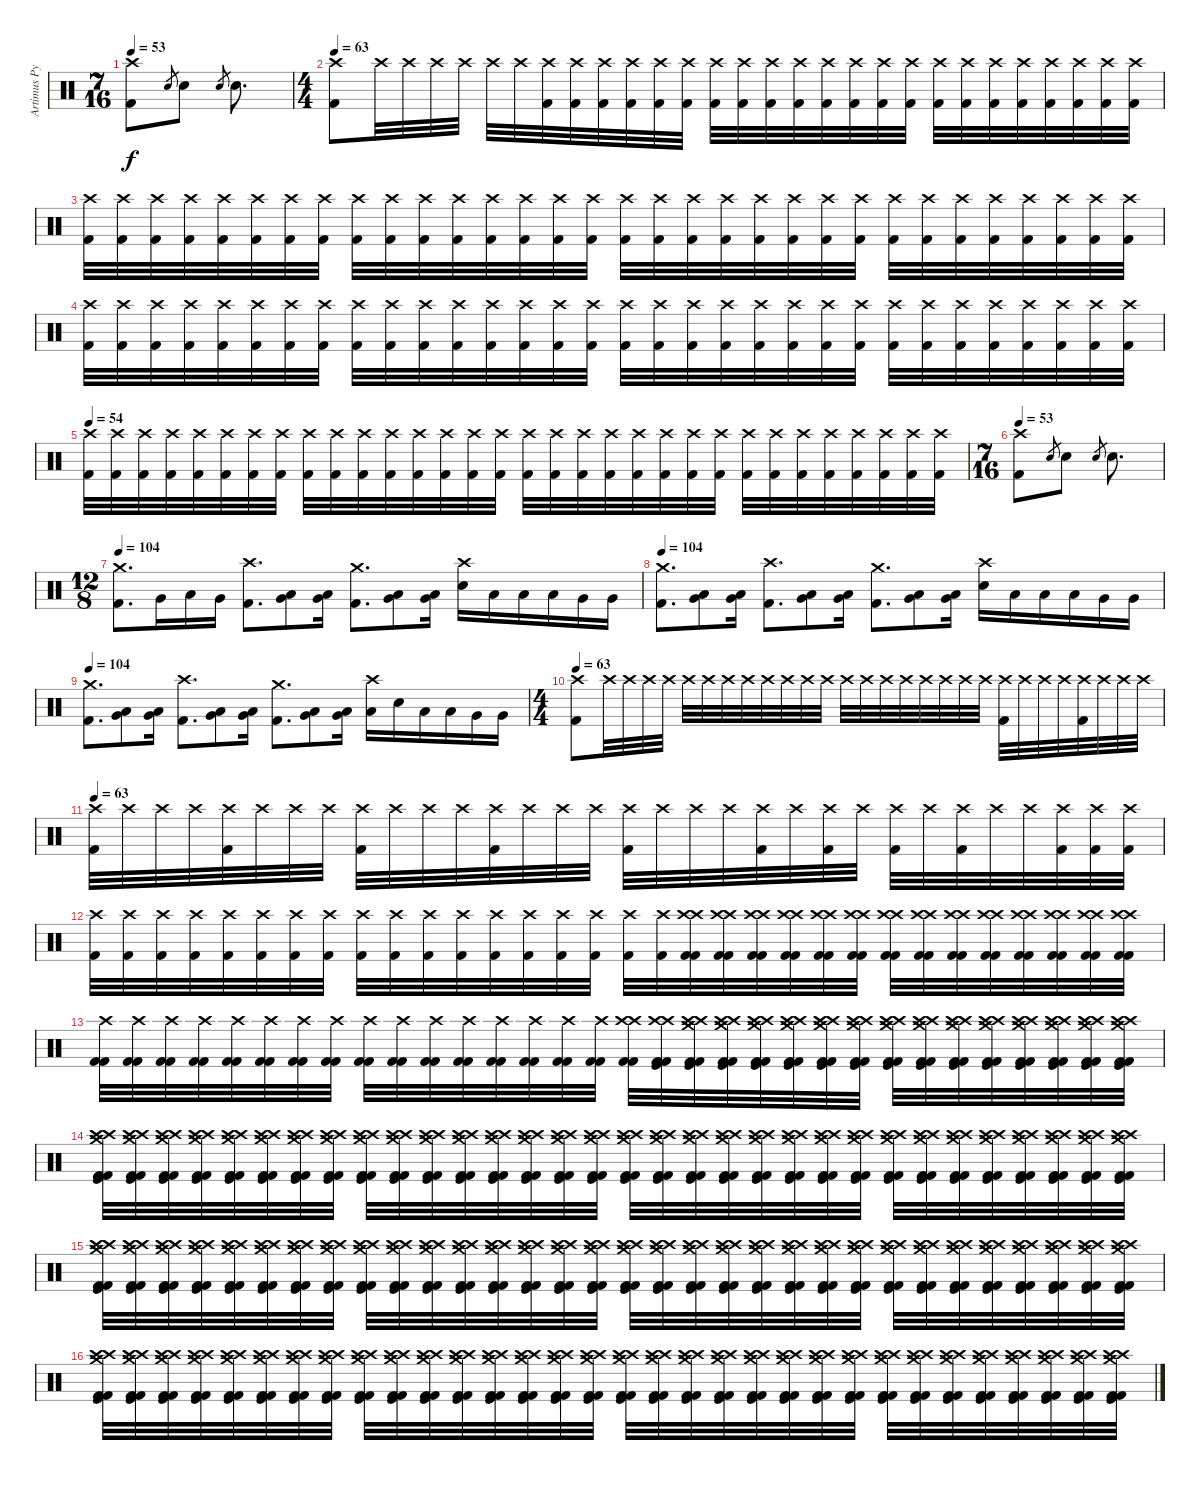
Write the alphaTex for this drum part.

\track ("Artimus Pyle (drums)" "Artimus Py") {instrument percussion}
\staff {score}
\articulation defaults
\ts (7 16)
\tempo 53
\clef neutral
\ks c
("Crash high (hit)" "Kick (hit) 2").8{dy f} "Electric Snare (hit)".8{gr} "Electric Snare (hit)".8 "Electric Snare (hit)".8{gr} "Electric Snare (hit)".8{d} |
\ts (4 4)
\tempo 63
("Crash high (hit)" "Kick (hit) 2").8 "Crash high (hit)".32 "Crash high (hit)".32 "Crash high (hit)".32 "Crash high (hit)".32 "Crash high (hit)".32 "Crash high (hit)".32 ("Crash high (hit)" "Kick (hit) 2").32 ("Crash high (hit)" "Kick (hit) 2").32 ("Crash high (hit)" "Kick (hit) 2").32 ("Crash high (hit)" "Kick (hit) 2").32 ("Crash high (hit)" "Kick (hit) 2").32 ("Crash high (hit)" "Kick (hit) 2").32 ("Crash high (hit)" "Kick (hit) 2").32 ("Crash high (hit)" "Kick (hit) 2").32 ("Crash high (hit)" "Kick (hit) 2").32 ("Crash high (hit)" "Kick (hit) 2").32 ("Crash high (hit)" "Kick (hit) 2").32 ("Crash high (hit)" "Kick (hit) 2").32 ("Crash high (hit)" "Kick (hit) 2").32 ("Crash high (hit)" "Kick (hit) 2").32 ("Crash high (hit)" "Kick (hit) 2").32 ("Crash high (hit)" "Kick (hit) 2").32 ("Crash high (hit)" "Kick (hit) 2").32 ("Crash high (hit)" "Kick (hit) 2").32 ("Crash high (hit)" "Kick (hit) 2").32 ("Crash high (hit)" "Kick (hit) 2").32 ("Crash high (hit)" "Kick (hit) 2").32 ("Crash high (hit)" "Kick (hit) 2").32 |
("Crash high (hit)" "Kick (hit) 2").32 ("Crash high (hit)" "Kick (hit) 2").32 ("Crash high (hit)" "Kick (hit) 2").32 ("Crash high (hit)" "Kick (hit) 2").32 ("Crash high (hit)" "Kick (hit) 2").32 ("Crash high (hit)" "Kick (hit) 2").32 ("Crash high (hit)" "Kick (hit) 2").32 ("Crash high (hit)" "Kick (hit) 2").32 ("Crash high (hit)" "Kick (hit) 2").32 ("Crash high (hit)" "Kick (hit) 2").32 ("Crash high (hit)" "Kick (hit) 2").32 ("Crash high (hit)" "Kick (hit) 2").32 ("Crash high (hit)" "Kick (hit) 2").32 ("Crash high (hit)" "Kick (hit) 2").32 ("Crash high (hit)" "Kick (hit) 2").32 ("Crash high (hit)" "Kick (hit) 2").32 ("Crash high (hit)" "Kick (hit) 2").32 ("Crash high (hit)" "Kick (hit) 2").32 ("Crash high (hit)" "Kick (hit) 2").32 ("Crash high (hit)" "Kick (hit) 2").32 ("Crash high (hit)" "Kick (hit) 2").32 ("Crash high (hit)" "Kick (hit) 2").32 ("Crash high (hit)" "Kick (hit) 2").32 ("Crash high (hit)" "Kick (hit) 2").32 ("Crash high (hit)" "Kick (hit) 2").32 ("Crash high (hit)" "Kick (hit) 2").32 ("Crash high (hit)" "Kick (hit) 2").32 ("Crash high (hit)" "Kick (hit) 2").32 ("Crash high (hit)" "Kick (hit) 2").32 ("Crash high (hit)" "Kick (hit) 2").32 ("Crash high (hit)" "Kick (hit) 2").32 ("Crash high (hit)" "Kick (hit) 2").32 |
("Crash high (hit)" "Kick (hit) 2").32 ("Crash high (hit)" "Kick (hit) 2").32 ("Crash high (hit)" "Kick (hit) 2").32 ("Crash high (hit)" "Kick (hit) 2").32 ("Crash high (hit)" "Kick (hit) 2").32 ("Crash high (hit)" "Kick (hit) 2").32 ("Crash high (hit)" "Kick (hit) 2").32 ("Crash high (hit)" "Kick (hit) 2").32 ("Crash high (hit)" "Kick (hit) 2").32 ("Crash high (hit)" "Kick (hit) 2").32 ("Crash high (hit)" "Kick (hit) 2").32 ("Crash high (hit)" "Kick (hit) 2").32 ("Crash high (hit)" "Kick (hit) 2").32 ("Crash high (hit)" "Kick (hit) 2").32 ("Crash high (hit)" "Kick (hit) 2").32 ("Crash high (hit)" "Kick (hit) 2").32 ("Crash high (hit)" "Kick (hit) 2").32 ("Crash high (hit)" "Kick (hit) 2").32 ("Crash high (hit)" "Kick (hit) 2").32 ("Crash high (hit)" "Kick (hit) 2").32 ("Crash high (hit)" "Kick (hit) 2").32 ("Crash high (hit)" "Kick (hit) 2").32 ("Crash high (hit)" "Kick (hit) 2").32 ("Crash high (hit)" "Kick (hit) 2").32 ("Crash high (hit)" "Kick (hit) 2").32 ("Crash high (hit)" "Kick (hit) 2").32 ("Crash high (hit)" "Kick (hit) 2").32 ("Crash high (hit)" "Kick (hit) 2").32 ("Crash high (hit)" "Kick (hit) 2").32 ("Crash high (hit)" "Kick (hit) 2").32 ("Crash high (hit)" "Kick (hit) 2").32 ("Crash high (hit)" "Kick (hit) 2").32 |
\tempo 54
("Crash high (hit)" "Kick (hit) 2").32 ("Crash high (hit)" "Kick (hit) 2").32 ("Crash high (hit)" "Kick (hit) 2").32 ("Crash high (hit)" "Kick (hit) 2").32 ("Crash high (hit)" "Kick (hit) 2").32 ("Crash high (hit)" "Kick (hit) 2").32 ("Crash high (hit)" "Kick (hit) 2").32 ("Crash high (hit)" "Kick (hit) 2").32 ("Crash high (hit)" "Kick (hit) 2").32 ("Crash high (hit)" "Kick (hit) 2").32 ("Crash high (hit)" "Kick (hit) 2").32 ("Crash high (hit)" "Kick (hit) 2").32 ("Crash high (hit)" "Kick (hit) 2").32 ("Crash high (hit)" "Kick (hit) 2").32 ("Crash high (hit)" "Kick (hit) 2").32 ("Crash high (hit)" "Kick (hit) 2").32 ("Crash high (hit)" "Kick (hit) 2").32 ("Crash high (hit)" "Kick (hit) 2").32 ("Crash high (hit)" "Kick (hit) 2").32 ("Crash high (hit)" "Kick (hit) 2").32 ("Crash high (hit)" "Kick (hit) 2").32 ("Crash high (hit)" "Kick (hit) 2").32 ("Crash high (hit)" "Kick (hit) 2").32 ("Crash high (hit)" "Kick (hit) 2").32 ("Crash high (hit)" "Kick (hit) 2").32 ("Crash high (hit)" "Kick (hit) 2").32 ("Crash high (hit)" "Kick (hit) 2").32 ("Crash high (hit)" "Kick (hit) 2").32 ("Crash high (hit)" "Kick (hit) 2").32 ("Crash high (hit)" "Kick (hit) 2").32 ("Crash high (hit)" "Kick (hit) 2").32 ("Crash high (hit)" "Kick (hit) 2").32 |
\ts (7 16)
\tempo 53
("Crash high (hit)" "Kick (hit) 2").8 "Electric Snare (hit)".8{gr} "Electric Snare (hit)".8 "Electric Snare (hit)".8{gr} "Electric Snare (hit)".8{d} |
\ts (12 8)
\tempo 104
("Crash medium (hit)" "Kick (hit) 2").8{d} "Very Low Tom (hit)".16 "Low Tom (hit)".16 "Very Low Tom (hit)".16 ("Crash high (hit)" "Kick (hit) 2").8{d} ("Low Tom (hit)" "Very Low Tom (hit)").8 ("Low Tom (hit)" "Very Low Tom (hit)").16 ("Crash medium (hit)" "Kick (hit) 2").8{d} ("Low Tom (hit)" "Very Low Tom (hit)").8 ("Low Tom (hit)" "Very Low Tom (hit)").16 ("Crash high (hit)" "Electric Snare (hit)").16 "Low Tom (hit)".16 "Low Tom (hit)".16 "Low Tom (hit)".16 "Very Low Tom (hit)".16 "Very Low Tom (hit)".16 |
\tempo 104
("Crash medium (hit)" "Kick (hit) 2").8{d} ("Low Tom (hit)" "Very Low Tom (hit)").8 ("Low Tom (hit)" "Very Low Tom (hit)").16 ("Crash high (hit)" "Kick (hit) 2").8{d} ("Low Tom (hit)" "Very Low Tom (hit)").8 ("Low Tom (hit)" "Very Low Tom (hit)").16 ("Crash medium (hit)" "Kick (hit) 2").8{d} ("Low Tom (hit)" "Very Low Tom (hit)").8 ("Low Tom (hit)" "Very Low Tom (hit)").16 ("Crash high (hit)" "Electric Snare (hit)").16 "Low Tom (hit)".16 "Low Tom (hit)".16 "Low Tom (hit)".16 "Very Low Tom (hit)".16 "Very Low Tom (hit)".16 |
\tempo 104
("Crash medium (hit)" "Kick (hit) 2").8{d} ("Low Tom (hit)" "Very Low Tom (hit)").8 ("Low Tom (hit)" "Very Low Tom (hit)").16 ("Crash high (hit)" "Kick (hit) 2").8{d} ("Low Tom (hit)" "Very Low Tom (hit)").8 ("Low Tom (hit)" "Very Low Tom (hit)").16 ("Crash medium (hit)" "Kick (hit) 2").8{d} ("Low Tom (hit)" "Very Low Tom (hit)").8 ("Low Tom (hit)" "Very Low Tom (hit)").16 ("Crash high (hit)" "Low Tom (hit)").16 "Electric Snare (hit)".16 "Low Tom (hit)".16 "Low Tom (hit)".16 "Very Low Tom (hit)".16 "Very Low Tom (hit)".16 |
\ts (4 4)
\tempo 63
("Crash high (hit)" "Kick (hit) 2").8 "Crash high (hit)".32 "Crash high (hit)".32 "Crash high (hit)".32 "Crash high (hit)".32 "Crash high (hit)".32 "Crash high (hit)".32 "Crash high (hit)".32 "Crash high (hit)".32 "Crash high (hit)".32 "Crash high (hit)".32 "Crash high (hit)".32 "Crash high (hit)".32 "Crash high (hit)".32 "Crash high (hit)".32 "Crash high (hit)".32 "Crash high (hit)".32 "Crash high (hit)".32 "Crash high (hit)".32 "Crash high (hit)".32 "Crash high (hit)".32 ("Crash high (hit)" "Kick (hit) 2").32 "Crash high (hit)".32 "Crash high (hit)".32 "Crash high (hit)".32 ("Crash high (hit)" "Kick (hit) 2").32 "Crash high (hit)".32 "Crash high (hit)".32 "Crash high (hit)".32 |
\tempo 63
("Crash high (hit)" "Kick (hit) 2").32 "Crash high (hit)".32 "Crash high (hit)".32 "Crash high (hit)".32 ("Crash high (hit)" "Kick (hit) 2").32 "Crash high (hit)".32 "Crash high (hit)".32 "Crash high (hit)".32 ("Crash high (hit)" "Kick (hit) 2").32 "Crash high (hit)".32 "Crash high (hit)".32 "Crash high (hit)".32 ("Crash high (hit)" "Kick (hit) 2").32 "Crash high (hit)".32 "Crash high (hit)".32 "Crash high (hit)".32 ("Crash high (hit)" "Kick (hit) 2").32 "Crash high (hit)".32 "Crash high (hit)".32 "Crash high (hit)".32 ("Crash high (hit)" "Kick (hit) 2").32 "Crash high (hit)".32 ("Crash high (hit)" "Kick (hit) 2").32 "Crash high (hit)".32 ("Crash high (hit)" "Kick (hit) 2").32 "Crash high (hit)".32 ("Crash high (hit)" "Kick (hit) 2").32 "Crash high (hit)".32 "Crash high (hit)".32 ("Crash high (hit)" "Kick (hit) 2").32 ("Crash high (hit)" "Kick (hit) 2").32 ("Crash high (hit)" "Kick (hit) 2").32 |
("Crash high (hit)" "Kick (hit) 2").32 ("Crash high (hit)" "Kick (hit) 2").32 ("Crash high (hit)" "Kick (hit) 2").32 ("Crash high (hit)" "Kick (hit) 2").32 ("Crash high (hit)" "Kick (hit) 2").32 ("Crash high (hit)" "Kick (hit) 2").32 ("Crash high (hit)" "Kick (hit) 2").32 ("Crash high (hit)" "Kick (hit) 2").32 ("Crash high (hit)" "Kick (hit) 2").32 ("Crash high (hit)" "Kick (hit) 2").32 ("Crash high (hit)" "Kick (hit) 2").32 ("Crash high (hit)" "Kick (hit) 2").32 ("Crash high (hit)" "Kick (hit) 2").32 ("Crash high (hit)" "Kick (hit) 2").32 ("Crash high (hit)" "Kick (hit) 2").32 ("Crash high (hit)" "Kick (hit) 2").32 ("Crash high (hit)" "Kick (hit) 2").32 ("Crash high (hit)" "Kick (hit) 2").32 ("Crash high (hit)" "Crash high (hit)" "Kick (hit) 2" "Kick (hit) 2").32 ("Crash high (hit)" "Crash high (hit)" "Kick (hit) 2" "Kick (hit) 2").32 ("Crash high (hit)" "Crash high (hit)" "Kick (hit) 2" "Kick (hit) 2").32 ("Crash high (hit)" "Crash high (hit)" "Kick (hit) 2" "Kick (hit) 2").32 ("Crash high (hit)" "Crash high (hit)" "Kick (hit) 2" "Kick (hit) 2").32 ("Crash high (hit)" "Crash high (hit)" "Kick (hit) 2" "Kick (hit) 2").32 ("Crash high (hit)" "Crash high (hit)" "Kick (hit) 2" "Kick (hit) 2").32 ("Crash high (hit)" "Crash high (hit)" "Kick (hit) 2" "Kick (hit) 2").32 ("Crash high (hit)" "Crash high (hit)" "Kick (hit) 2" "Kick (hit) 2").32 ("Crash high (hit)" "Crash high (hit)" "Kick (hit) 2" "Kick (hit) 2").32 ("Crash high (hit)" "Crash high (hit)" "Kick (hit) 2" "Kick (hit) 2").32 ("Crash high (hit)" "Crash high (hit)" "Kick (hit) 2" "Kick (hit) 2").32 ("Crash high (hit)" "Crash high (hit)" "Kick (hit) 2" "Kick (hit) 2").32 ("Crash high (hit)" "Crash high (hit)" "Kick (hit) 2" "Kick (hit) 2").32 |
("Crash high (hit)" "Kick (hit) 2" "Kick (hit) 2").32 ("Crash high (hit)" "Kick (hit) 2" "Kick (hit) 2").32 ("Crash high (hit)" "Kick (hit) 2" "Kick (hit) 2").32 ("Crash high (hit)" "Kick (hit) 2" "Kick (hit) 2").32 ("Crash high (hit)" "Kick (hit) 2" "Kick (hit) 2").32 ("Crash high (hit)" "Kick (hit) 2" "Kick (hit) 2").32 ("Crash high (hit)" "Kick (hit) 2" "Kick (hit) 2").32 ("Crash high (hit)" "Kick (hit) 2" "Kick (hit) 2").32 ("Crash high (hit)" "Kick (hit) 2" "Kick (hit) 2").32 ("Crash high (hit)" "Kick (hit) 2" "Kick (hit) 2").32 ("Crash high (hit)" "Kick (hit) 2" "Kick (hit) 2").32 ("Crash high (hit)" "Kick (hit) 2" "Kick (hit) 2").32 ("Crash high (hit)" "Kick (hit) 2" "Kick (hit) 2").32 ("Crash high (hit)" "Kick (hit) 2" "Kick (hit) 2").32 ("Crash high (hit)" "Kick (hit) 2" "Kick (hit) 2").32 ("Crash high (hit)" "Kick (hit) 2" "Kick (hit) 2").32 ("Crash high (hit)" "Crash high (hit)" "Kick (hit) 2" "Kick (hit) 2").32 ("Crash high (hit)" "Crash high (hit)" "Kick (hit)" "Kick (hit) 2" "Kick (hit) 2").32 ("Crash medium (hit)" "Crash high (hit)" "Crash high (hit)" "Kick (hit)" "Kick (hit) 2" "Kick (hit) 2").32 ("Crash medium (hit)" "Crash high (hit)" "Crash high (hit)" "Kick (hit)" "Kick (hit) 2" "Kick (hit) 2").32 ("Crash medium (hit)" "Crash high (hit)" "Crash high (hit)" "Kick (hit)" "Kick (hit) 2" "Kick (hit) 2").32 ("Crash medium (hit)" "Crash high (hit)" "Crash high (hit)" "Kick (hit)" "Kick (hit) 2" "Kick (hit) 2").32 ("Crash medium (hit)" "Crash high (hit)" "Crash high (hit)" "Kick (hit)" "Kick (hit) 2" "Kick (hit) 2").32 ("Crash medium (hit)" "Crash high (hit)" "Crash high (hit)" "Kick (hit)" "Kick (hit) 2" "Kick (hit) 2").32 ("Crash medium (hit)" "Crash high (hit)" "Crash high (hit)" "Kick (hit)" "Kick (hit) 2" "Kick (hit) 2").32 ("Crash medium (hit)" "Crash high (hit)" "Crash high (hit)" "Kick (hit)" "Kick (hit) 2" "Kick (hit) 2").32 ("Crash medium (hit)" "Crash high (hit)" "Crash high (hit)" "Kick (hit)" "Kick (hit) 2" "Kick (hit) 2").32 ("Crash medium (hit)" "Crash high (hit)" "Crash high (hit)" "Kick (hit)" "Kick (hit) 2" "Kick (hit) 2").32 ("Crash medium (hit)" "Crash high (hit)" "Crash high (hit)" "Kick (hit)" "Kick (hit) 2" "Kick (hit) 2").32 ("Crash medium (hit)" "Crash high (hit)" "Crash high (hit)" "Kick (hit)" "Kick (hit) 2" "Kick (hit) 2").32 ("Crash medium (hit)" "Crash high (hit)" "Crash high (hit)" "Kick (hit)" "Kick (hit) 2" "Kick (hit) 2").32 ("Crash medium (hit)" "Crash high (hit)" "Crash high (hit)" "Kick (hit)" "Kick (hit) 2" "Kick (hit) 2").32 |
("Crash medium (hit)" "Crash high (hit)" "Crash high (hit)" "Kick (hit)" "Kick (hit) 2" "Kick (hit) 2").32 ("Crash medium (hit)" "Crash high (hit)" "Crash high (hit)" "Kick (hit)" "Kick (hit) 2" "Kick (hit) 2").32 ("Crash medium (hit)" "Crash high (hit)" "Crash high (hit)" "Kick (hit)" "Kick (hit) 2" "Kick (hit) 2").32 ("Crash medium (hit)" "Crash high (hit)" "Crash high (hit)" "Kick (hit)" "Kick (hit) 2" "Kick (hit) 2").32 ("Crash medium (hit)" "Crash high (hit)" "Crash high (hit)" "Kick (hit)" "Kick (hit) 2" "Kick (hit) 2").32 ("Crash medium (hit)" "Crash high (hit)" "Crash high (hit)" "Kick (hit)" "Kick (hit) 2" "Kick (hit) 2").32 ("Crash medium (hit)" "Crash high (hit)" "Crash high (hit)" "Kick (hit)" "Kick (hit) 2" "Kick (hit) 2").32 ("Crash medium (hit)" "Crash high (hit)" "Crash high (hit)" "Kick (hit)" "Kick (hit) 2" "Kick (hit) 2").32 ("Crash medium (hit)" "Crash high (hit)" "Crash high (hit)" "Kick (hit)" "Kick (hit) 2" "Kick (hit) 2").32 ("Crash medium (hit)" "Crash high (hit)" "Crash high (hit)" "Kick (hit)" "Kick (hit) 2" "Kick (hit) 2").32 ("Crash medium (hit)" "Crash high (hit)" "Crash high (hit)" "Kick (hit)" "Kick (hit) 2" "Kick (hit) 2").32 ("Crash medium (hit)" "Crash high (hit)" "Crash high (hit)" "Kick (hit)" "Kick (hit) 2" "Kick (hit) 2").32 ("Crash medium (hit)" "Crash high (hit)" "Crash high (hit)" "Kick (hit)" "Kick (hit) 2" "Kick (hit) 2").32 ("Crash medium (hit)" "Crash high (hit)" "Crash high (hit)" "Kick (hit)" "Kick (hit) 2" "Kick (hit) 2").32 ("Crash medium (hit)" "Crash high (hit)" "Crash high (hit)" "Kick (hit)" "Kick (hit) 2" "Kick (hit) 2").32 ("Crash medium (hit)" "Crash high (hit)" "Crash high (hit)" "Kick (hit)" "Kick (hit) 2" "Kick (hit) 2").32 ("Crash medium (hit)" "Crash high (hit)" "Crash high (hit)" "Kick (hit)" "Kick (hit) 2" "Kick (hit) 2").32 ("Crash medium (hit)" "Crash high (hit)" "Crash high (hit)" "Kick (hit)" "Kick (hit) 2" "Kick (hit) 2").32 ("Crash medium (hit)" "Crash high (hit)" "Crash high (hit)" "Kick (hit)" "Kick (hit) 2" "Kick (hit) 2").32 ("Crash medium (hit)" "Crash high (hit)" "Crash high (hit)" "Kick (hit)" "Kick (hit) 2" "Kick (hit) 2").32 ("Crash medium (hit)" "Crash high (hit)" "Crash high (hit)" "Kick (hit)" "Kick (hit) 2" "Kick (hit) 2").32 ("Crash medium (hit)" "Crash high (hit)" "Crash high (hit)" "Kick (hit)" "Kick (hit) 2" "Kick (hit) 2").32 ("Crash medium (hit)" "Crash high (hit)" "Crash high (hit)" "Kick (hit)" "Kick (hit) 2" "Kick (hit) 2").32 ("Crash medium (hit)" "Crash high (hit)" "Crash high (hit)" "Kick (hit)" "Kick (hit) 2" "Kick (hit) 2").32 ("Crash medium (hit)" "Crash high (hit)" "Crash high (hit)" "Kick (hit)" "Kick (hit) 2" "Kick (hit) 2").32 ("Crash medium (hit)" "Crash high (hit)" "Crash high (hit)" "Kick (hit)" "Kick (hit) 2" "Kick (hit) 2").32 ("Crash medium (hit)" "Crash high (hit)" "Crash high (hit)" "Kick (hit)" "Kick (hit) 2" "Kick (hit) 2").32 ("Crash medium (hit)" "Crash high (hit)" "Crash high (hit)" "Kick (hit)" "Kick (hit) 2" "Kick (hit) 2").32 ("Crash medium (hit)" "Crash high (hit)" "Crash high (hit)" "Kick (hit)" "Kick (hit) 2" "Kick (hit) 2").32 ("Crash medium (hit)" "Crash high (hit)" "Crash high (hit)" "Kick (hit)" "Kick (hit) 2" "Kick (hit) 2").32 ("Crash medium (hit)" "Crash high (hit)" "Crash high (hit)" "Kick (hit)" "Kick (hit) 2" "Kick (hit) 2").32 ("Crash medium (hit)" "Crash high (hit)" "Crash high (hit)" "Kick (hit)" "Kick (hit) 2" "Kick (hit) 2").32 |
("Crash medium (hit)" "Crash high (hit)" "Crash high (hit)" "Kick (hit)" "Kick (hit) 2" "Kick (hit) 2").32 ("Crash medium (hit)" "Crash high (hit)" "Crash high (hit)" "Kick (hit)" "Kick (hit) 2" "Kick (hit) 2").32 ("Crash medium (hit)" "Crash high (hit)" "Crash high (hit)" "Kick (hit)" "Kick (hit) 2" "Kick (hit) 2").32 ("Crash medium (hit)" "Crash high (hit)" "Crash high (hit)" "Kick (hit)" "Kick (hit) 2" "Kick (hit) 2").32 ("Crash medium (hit)" "Crash high (hit)" "Crash high (hit)" "Kick (hit)" "Kick (hit) 2" "Kick (hit) 2").32 ("Crash medium (hit)" "Crash high (hit)" "Crash high (hit)" "Kick (hit)" "Kick (hit) 2" "Kick (hit) 2").32 ("Crash medium (hit)" "Crash high (hit)" "Crash high (hit)" "Kick (hit)" "Kick (hit) 2" "Kick (hit) 2").32 ("Crash medium (hit)" "Crash high (hit)" "Crash high (hit)" "Kick (hit)" "Kick (hit) 2" "Kick (hit) 2").32 ("Crash medium (hit)" "Crash high (hit)" "Crash high (hit)" "Kick (hit)" "Kick (hit) 2" "Kick (hit) 2").32 ("Crash medium (hit)" "Crash high (hit)" "Crash high (hit)" "Kick (hit)" "Kick (hit) 2" "Kick (hit) 2").32 ("Crash medium (hit)" "Crash high (hit)" "Crash high (hit)" "Kick (hit)" "Kick (hit) 2" "Kick (hit) 2").32 ("Crash medium (hit)" "Crash high (hit)" "Crash high (hit)" "Kick (hit)" "Kick (hit) 2" "Kick (hit) 2").32 ("Crash medium (hit)" "Crash high (hit)" "Crash high (hit)" "Kick (hit)" "Kick (hit) 2" "Kick (hit) 2").32 ("Crash medium (hit)" "Crash high (hit)" "Crash high (hit)" "Kick (hit)" "Kick (hit) 2" "Kick (hit) 2").32 ("Crash medium (hit)" "Crash high (hit)" "Crash high (hit)" "Kick (hit)" "Kick (hit) 2" "Kick (hit) 2").32 ("Crash medium (hit)" "Crash high (hit)" "Crash high (hit)" "Kick (hit)" "Kick (hit) 2" "Kick (hit) 2").32 ("Crash medium (hit)" "Crash high (hit)" "Crash high (hit)" "Kick (hit)" "Kick (hit) 2" "Kick (hit) 2").32 ("Crash medium (hit)" "Crash high (hit)" "Crash high (hit)" "Kick (hit)" "Kick (hit) 2" "Kick (hit) 2").32 ("Crash medium (hit)" "Crash high (hit)" "Crash high (hit)" "Kick (hit)" "Kick (hit) 2" "Kick (hit) 2").32 ("Crash medium (hit)" "Crash high (hit)" "Crash high (hit)" "Kick (hit)" "Kick (hit) 2" "Kick (hit) 2").32 ("Crash medium (hit)" "Crash high (hit)" "Crash high (hit)" "Kick (hit)" "Kick (hit) 2" "Kick (hit) 2").32 ("Crash medium (hit)" "Crash high (hit)" "Crash high (hit)" "Kick (hit)" "Kick (hit) 2" "Kick (hit) 2").32 ("Crash medium (hit)" "Crash high (hit)" "Crash high (hit)" "Kick (hit)" "Kick (hit) 2" "Kick (hit) 2").32 ("Crash medium (hit)" "Crash high (hit)" "Crash high (hit)" "Kick (hit)" "Kick (hit) 2" "Kick (hit) 2").32 ("Crash medium (hit)" "Crash high (hit)" "Crash high (hit)" "Kick (hit)" "Kick (hit) 2" "Kick (hit) 2").32 ("Crash medium (hit)" "Crash high (hit)" "Crash high (hit)" "Kick (hit)" "Kick (hit) 2" "Kick (hit) 2").32 ("Crash medium (hit)" "Crash high (hit)" "Crash high (hit)" "Kick (hit)" "Kick (hit) 2" "Kick (hit) 2").32 ("Crash medium (hit)" "Crash high (hit)" "Crash high (hit)" "Kick (hit)" "Kick (hit) 2" "Kick (hit) 2").32 ("Crash medium (hit)" "Crash high (hit)" "Crash high (hit)" "Kick (hit)" "Kick (hit) 2" "Kick (hit) 2").32 ("Crash medium (hit)" "Crash high (hit)" "Crash high (hit)" "Kick (hit)" "Kick (hit) 2" "Kick (hit) 2").32 ("Crash medium (hit)" "Crash high (hit)" "Crash high (hit)" "Kick (hit)" "Kick (hit) 2" "Kick (hit) 2").32 ("Crash medium (hit)" "Crash high (hit)" "Crash high (hit)" "Kick (hit)" "Kick (hit) 2" "Kick (hit) 2").32 |
("Crash medium (hit)" "Crash high (hit)" "Crash high (hit)" "Kick (hit)" "Kick (hit) 2" "Kick (hit) 2").32 ("Crash medium (hit)" "Crash high (hit)" "Crash high (hit)" "Kick (hit)" "Kick (hit) 2" "Kick (hit) 2").32 ("Crash medium (hit)" "Crash high (hit)" "Crash high (hit)" "Kick (hit)" "Kick (hit) 2" "Kick (hit) 2").32 ("Crash medium (hit)" "Crash high (hit)" "Crash high (hit)" "Kick (hit)" "Kick (hit) 2" "Kick (hit) 2").32 ("Crash medium (hit)" "Crash high (hit)" "Crash high (hit)" "Kick (hit)" "Kick (hit) 2" "Kick (hit) 2").32 ("Crash medium (hit)" "Crash high (hit)" "Crash high (hit)" "Kick (hit)" "Kick (hit) 2" "Kick (hit) 2").32 ("Crash medium (hit)" "Crash high (hit)" "Crash high (hit)" "Kick (hit)" "Kick (hit) 2" "Kick (hit) 2").32 ("Crash medium (hit)" "Crash high (hit)" "Crash high (hit)" "Kick (hit)" "Kick (hit) 2" "Kick (hit) 2").32 ("Crash medium (hit)" "Crash high (hit)" "Crash high (hit)" "Kick (hit)" "Kick (hit) 2" "Kick (hit) 2").32 ("Crash medium (hit)" "Crash high (hit)" "Crash high (hit)" "Kick (hit)" "Kick (hit) 2" "Kick (hit) 2").32 ("Crash medium (hit)" "Crash high (hit)" "Crash high (hit)" "Kick (hit)" "Kick (hit) 2" "Kick (hit) 2").32 ("Crash medium (hit)" "Crash high (hit)" "Crash high (hit)" "Kick (hit)" "Kick (hit) 2" "Kick (hit) 2").32 ("Crash medium (hit)" "Crash high (hit)" "Crash high (hit)" "Kick (hit)" "Kick (hit) 2" "Kick (hit) 2").32 ("Crash medium (hit)" "Crash high (hit)" "Crash high (hit)" "Kick (hit)" "Kick (hit) 2" "Kick (hit) 2").32 ("Crash medium (hit)" "Crash high (hit)" "Crash high (hit)" "Kick (hit)" "Kick (hit) 2" "Kick (hit) 2").32 ("Crash medium (hit)" "Crash high (hit)" "Crash high (hit)" "Kick (hit)" "Kick (hit) 2" "Kick (hit) 2").32 ("Crash medium (hit)" "Crash high (hit)" "Crash high (hit)" "Kick (hit)" "Kick (hit) 2" "Kick (hit) 2").32 ("Crash medium (hit)" "Crash high (hit)" "Crash high (hit)" "Kick (hit)" "Kick (hit) 2" "Kick (hit) 2").32 ("Crash medium (hit)" "Crash high (hit)" "Crash high (hit)" "Kick (hit)" "Kick (hit) 2" "Kick (hit) 2").32 ("Crash medium (hit)" "Crash high (hit)" "Crash high (hit)" "Kick (hit)" "Kick (hit) 2" "Kick (hit) 2").32 ("Crash medium (hit)" "Crash high (hit)" "Crash high (hit)" "Kick (hit)" "Kick (hit) 2" "Kick (hit) 2").32 ("Crash medium (hit)" "Crash high (hit)" "Crash high (hit)" "Kick (hit)" "Kick (hit) 2" "Kick (hit) 2").32 ("Crash medium (hit)" "Crash high (hit)" "Crash high (hit)" "Kick (hit)" "Kick (hit) 2" "Kick (hit) 2").32 ("Crash medium (hit)" "Crash high (hit)" "Crash high (hit)" "Kick (hit)" "Kick (hit) 2" "Kick (hit) 2").32 ("Crash medium (hit)" "Crash high (hit)" "Crash high (hit)" "Kick (hit)" "Kick (hit) 2" "Kick (hit) 2").32 ("Crash medium (hit)" "Crash high (hit)" "Crash high (hit)" "Kick (hit)" "Kick (hit) 2" "Kick (hit) 2").32 ("Crash medium (hit)" "Crash high (hit)" "Crash high (hit)" "Kick (hit)" "Kick (hit) 2" "Kick (hit) 2").32 ("Crash medium (hit)" "Crash high (hit)" "Crash high (hit)" "Kick (hit)" "Kick (hit) 2" "Kick (hit) 2").32 ("Crash medium (hit)" "Crash high (hit)" "Crash high (hit)" "Kick (hit)" "Kick (hit) 2" "Kick (hit) 2").32 ("Crash medium (hit)" "Crash high (hit)" "Crash high (hit)" "Kick (hit)" "Kick (hit) 2" "Kick (hit) 2").32 ("Crash medium (hit)" "Crash high (hit)" "Crash high (hit)" "Kick (hit)" "Kick (hit) 2" "Kick (hit) 2").32 ("Crash medium (hit)" "Crash high (hit)" "Crash high (hit)" "Kick (hit)" "Kick (hit) 2" "Kick (hit) 2").32
